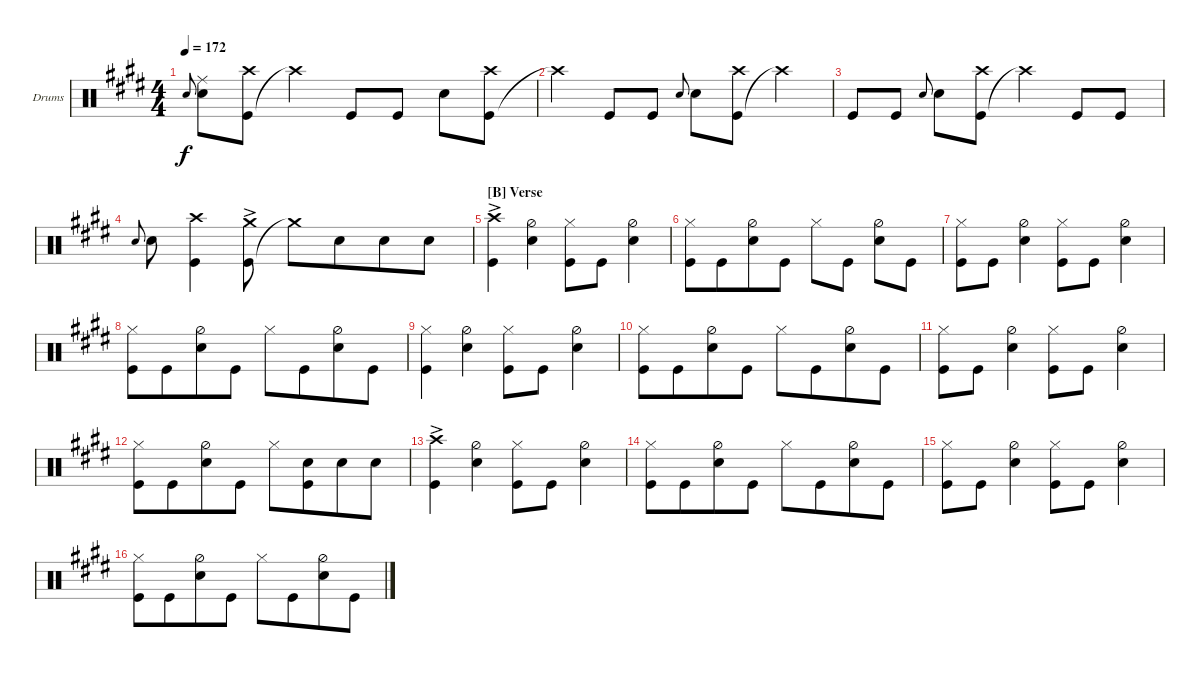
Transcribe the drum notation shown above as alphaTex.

\bracketExtendMode groupsimilarinstruments
\firstSystemTrackNameOrientation horizontal
\otherSystemsTrackNameOrientation horizontal
\track ("Drums" "Drums") {instrument percussion}
\staff {score}
\articulation defaults
\ts (4 4)
\tempo 172
\clef neutral
\scale
0.333333
\ks e "Snare (hit) 2".8{gr onbeat dy f}
("Snare (hit) 2" "Ride (middle)").8 ("Kick (hit)" "Crash high (hit)").8 "Crash high (hit)"{t}.4 "Kick (hit)".8 "Kick (hit)".8 "Snare (hit) 2".8 ("Kick (hit)" "Crash high (hit)").8 |
\scale
0.333333 "Crash high (hit)"{t}.4 "Kick (hit)".8 "Kick (hit)".8 "Snare (hit) 2".8{gr onbeat} "Snare (hit) 2".8 ("Kick (hit)" "Crash high (hit)").8 "Crash high (hit)"{t}.4 |
\scale
0.333333 "Kick (hit)".8 "Kick (hit)".8 "Snare (hit) 2".8{gr onbeat} "Snare (hit) 2".8 ("Kick (hit)" "Crash high (hit)").8 "Crash high (hit)"{t}.4 "Kick (hit)".8 "Kick (hit)".8 |
\scale
0.384615 "Snare (hit) 2".8{gr onbeat} "Snare (hit) 2".8 ("Kick (hit)" "Crash high (hit)").4 ("Kick (hit)" "Crash medium (hit)"{ac}).8 "Crash medium (hit)"{t}.8 "Snare (hit) 2".8{beam merge} "Snare (hit) 2".8 "Snare (hit) 2".8 |
\section ("B" "Verse")
\scale
0.424749 ("Kick (hit)" "Crash high (hit)"{ac}).4 ("Hi-Hat (half)" "Snare (hit) 2").4 ("Kick (hit)" "Hi-Hat (closed)").8 "Kick (hit)".8{beam merge} ("Hi-Hat (half)" "Snare (hit) 2").4 |
\scale
0.190635 ("Hi-Hat (closed)" "Kick (hit)").8 "Kick (hit)".8{beam merge} ("Hi-Hat (half)" "Snare (hit) 2").8 "Kick (hit)".8 "Hi-Hat (closed)".8 "Kick (hit)".8 ("Hi-Hat (half)" "Snare (hit) 2").8 "Kick (hit)".8 |
\scale
0.322034 ("Hi-Hat (closed)" "Kick (hit)").8 "Kick (hit)".8{beam merge} ("Hi-Hat (half)" "Snare (hit) 2").4 ("Hi-Hat (closed)" "Kick (hit)").8 "Kick (hit)".8{beam merge} ("Hi-Hat (half)" "Snare (hit) 2").4 |
\scale
0.355932 ("Hi-Hat (closed)" "Kick (hit)").8 "Kick (hit)".8{beam merge} ("Hi-Hat (half)" "Snare (hit) 2").8 "Kick (hit)".8 "Hi-Hat (closed)".8 "Kick (hit)".8{beam merge} ("Hi-Hat (half)" "Snare (hit) 2").8 "Kick (hit)".8 |
\scale
0.322034 ("Hi-Hat (closed)" "Kick (hit)").4 ("Hi-Hat (half)" "Snare (hit) 2").4 ("Kick (hit)" "Hi-Hat (closed)").8 "Kick (hit)".8{beam merge} ("Hi-Hat (half)" "Snare (hit) 2").4 |
("Hi-Hat (closed)" "Kick (hit)").8 "Kick (hit)".8{beam merge} ("Hi-Hat (half)" "Snare (hit) 2").8 "Kick (hit)".8 "Hi-Hat (closed)".8 "Kick (hit)".8{beam merge} ("Hi-Hat (half)" "Snare (hit) 2").8 "Kick (hit)".8 |
("Hi-Hat (closed)" "Kick (hit)").8 "Kick (hit)".8{beam merge} ("Hi-Hat (half)" "Snare (hit) 2").4 ("Hi-Hat (closed)" "Kick (hit)").8 "Kick (hit)".8{beam merge} ("Hi-Hat (half)" "Snare (hit) 2").4 |
("Hi-Hat (closed)" "Kick (hit)").8 "Kick (hit)".8{beam merge} ("Hi-Hat (half)" "Snare (hit) 2").8 "Kick (hit)".8 "Hi-Hat (closed)".8 ("Kick (hit)" "Snare (hit) 2").8{beam merge} "Snare (hit) 2".8 "Snare (hit) 2".8 |
("Kick (hit)" "Crash high (hit)"{ac}).4 ("Hi-Hat (half)" "Snare (hit) 2").4 ("Kick (hit)" "Hi-Hat (closed)").8 "Kick (hit)".8{beam merge} ("Hi-Hat (half)" "Snare (hit) 2").4 |
("Hi-Hat (closed)" "Kick (hit)").8 "Kick (hit)".8{beam merge} ("Hi-Hat (half)" "Snare (hit) 2").8 "Kick (hit)".8 "Hi-Hat (closed)".8 "Kick (hit)".8{beam merge} ("Hi-Hat (half)" "Snare (hit) 2").8 "Kick (hit)".8 |
("Hi-Hat (closed)" "Kick (hit)").8 "Kick (hit)".8{beam merge} ("Hi-Hat (half)" "Snare (hit) 2").4 ("Hi-Hat (closed)" "Kick (hit)").8 "Kick (hit)".8{beam merge} ("Hi-Hat (half)" "Snare (hit) 2").4 |
("Hi-Hat (closed)" "Kick (hit)").8 "Kick (hit)".8{beam merge} ("Hi-Hat (half)" "Snare (hit) 2").8 "Kick (hit)".8 "Hi-Hat (closed)".8 "Kick (hit)".8{beam merge} ("Hi-Hat (half)" "Snare (hit) 2").8 "Kick (hit)".8
